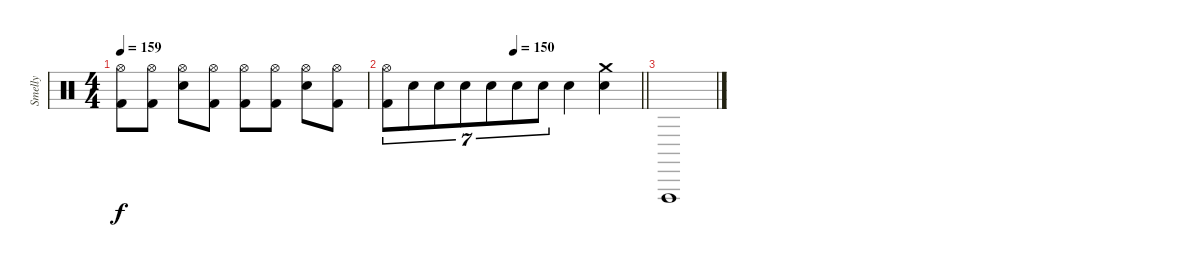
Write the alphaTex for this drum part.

\track ("Smelly" "Smelly") {instrument percussion}
\staff {score}
\articulation defaults
\ts (4 4)
\tempo 159
\clef neutral
\ks c
("Hi-Hat (open)" "Kick (hit) 2").8{dy f} ("Hi-Hat (open)" "Kick (hit) 2").8 ("Hi-Hat (open)" "Electric Snare (hit)").8 ("Hi-Hat (open)" "Kick (hit) 2").8 ("Hi-Hat (open)" "Kick (hit) 2").8 ("Hi-Hat (open)" "Kick (hit) 2").8 ("Hi-Hat (open)" "Electric Snare (hit)").8 ("Hi-Hat (open)" "Kick (hit) 2").8 |
\tempo (150 0.49947916666666664)
\barLineRight lightlight
("Hi-Hat (open)" "Kick (hit) 2").8{tu (7 4)} "Electric Snare (hit)".8{tu (7 4)} "Electric Snare (hit)".8{tu (7 4)} "Electric Snare (hit)".8{tu (7 4)} "Electric Snare (hit)".8{tu (7 4)} "Electric Snare (hit)".8{tu (7 4)} "Electric Snare (hit)".8{tu (7 4)} "Electric Snare (hit)".4 ("Crash medium (hit)" "Electric Snare (hit)").4 |
\section ("" "")
"Vibraslap (hit)".1
